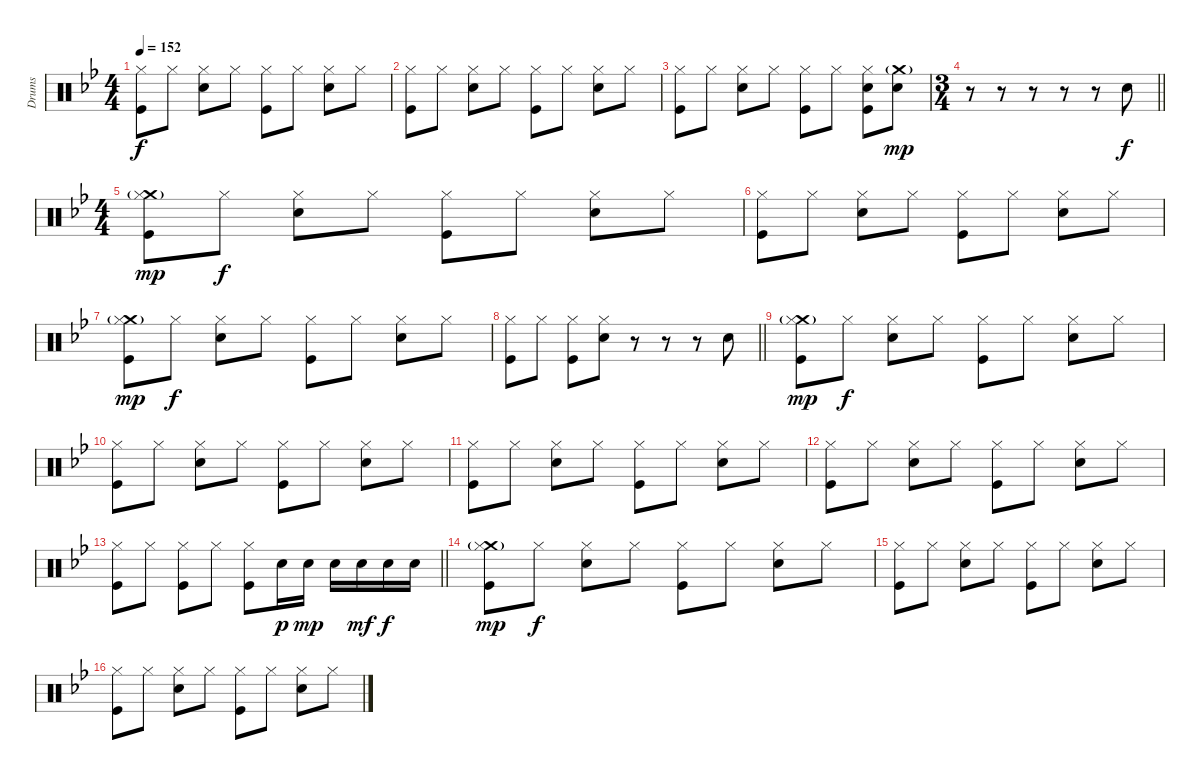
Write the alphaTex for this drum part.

\track ("Drums" "Drums") {instrument percussion}
\staff {score}
\articulation defaults
\ts (4 4)
\tempo 152
\clef neutral
\ks bb
("Hi-Hat (closed)" "Kick (hit)").8{dy f} "Hi-Hat (closed)".8 ("Hi-Hat (closed)" "Electric Snare (hit)").8 "Hi-Hat (closed)".8 ("Hi-Hat (closed)" "Kick (hit)").8 "Hi-Hat (closed)".8 ("Hi-Hat (closed)" "Electric Snare (hit)").8 "Hi-Hat (closed)".8 |
("Hi-Hat (closed)" "Kick (hit)").8 "Hi-Hat (closed)".8 ("Hi-Hat (closed)" "Electric Snare (hit)").8 "Hi-Hat (closed)".8 ("Hi-Hat (closed)" "Kick (hit)").8 "Hi-Hat (closed)".8 ("Hi-Hat (closed)" "Electric Snare (hit)").8 "Hi-Hat (closed)".8 |
("Hi-Hat (closed)" "Kick (hit)").8 "Hi-Hat (closed)".8 ("Hi-Hat (closed)" "Electric Snare (hit)").8 "Hi-Hat (closed)".8 ("Hi-Hat (closed)" "Kick (hit)").8 "Hi-Hat (closed)".8 ("Hi-Hat (closed)" "Kick (hit)" "Electric Snare (hit)").8 ("Crash medium (hit)"{g} "Electric Snare (hit)").8{dy mp} |
\ts (3 4)
\barLineRight lightlight
r.8 r.8 r.8 r.8 r.8 "Electric Snare (hit)".8{dy f} |
\ts (4 4)
("Crash medium (hit)"{g} "Hi-Hat (closed)" "Kick (hit)").8{dy mp} "Hi-Hat (closed)".8{dy f} ("Hi-Hat (closed)" "Electric Snare (hit)").8 "Hi-Hat (closed)".8 ("Hi-Hat (closed)" "Kick (hit)").8 "Hi-Hat (closed)".8 ("Hi-Hat (closed)" "Electric Snare (hit)").8 "Hi-Hat (closed)".8 |
("Hi-Hat (closed)" "Kick (hit)").8 "Hi-Hat (closed)".8 ("Hi-Hat (closed)" "Electric Snare (hit)").8 "Hi-Hat (closed)".8 ("Hi-Hat (closed)" "Kick (hit)").8 "Hi-Hat (closed)".8 ("Hi-Hat (closed)" "Electric Snare (hit)").8 "Hi-Hat (closed)".8 |
("Crash medium (hit)"{g} "Hi-Hat (closed)" "Kick (hit)").8{dy mp} "Hi-Hat (closed)".8{dy f} ("Hi-Hat (closed)" "Electric Snare (hit)").8 "Hi-Hat (closed)".8 ("Hi-Hat (closed)" "Kick (hit)").8 "Hi-Hat (closed)".8 ("Hi-Hat (closed)" "Electric Snare (hit)").8 "Hi-Hat (closed)".8 |
\barLineRight lightlight
("Hi-Hat (closed)" "Kick (hit)").8 "Hi-Hat (closed)".8 ("Hi-Hat (closed)" "Kick (hit)").8 ("Hi-Hat (closed)" "Electric Snare (hit)").8 r.8 r.8 r.8 "Electric Snare (hit)".8 |
("Crash medium (hit)"{g} "Hi-Hat (closed)" "Kick (hit)").8{dy mp} "Hi-Hat (closed)".8{dy f} ("Hi-Hat (closed)" "Electric Snare (hit)").8 "Hi-Hat (closed)".8 ("Hi-Hat (closed)" "Kick (hit)").8 "Hi-Hat (closed)".8 ("Hi-Hat (closed)" "Electric Snare (hit)").8 "Hi-Hat (closed)".8 |
("Hi-Hat (closed)" "Kick (hit)").8 "Hi-Hat (closed)".8 ("Hi-Hat (closed)" "Electric Snare (hit)").8 "Hi-Hat (closed)".8 ("Hi-Hat (closed)" "Kick (hit)").8 "Hi-Hat (closed)".8 ("Hi-Hat (closed)" "Electric Snare (hit)").8 "Hi-Hat (closed)".8 |
("Hi-Hat (closed)" "Kick (hit)").8 "Hi-Hat (closed)".8 ("Hi-Hat (closed)" "Electric Snare (hit)").8 "Hi-Hat (closed)".8 ("Hi-Hat (closed)" "Kick (hit)").8 "Hi-Hat (closed)".8 ("Hi-Hat (closed)" "Electric Snare (hit)").8 "Hi-Hat (closed)".8 |
("Hi-Hat (closed)" "Kick (hit)").8 "Hi-Hat (closed)".8 ("Hi-Hat (closed)" "Electric Snare (hit)").8 "Hi-Hat (closed)".8 ("Hi-Hat (closed)" "Kick (hit)").8 "Hi-Hat (closed)".8 ("Hi-Hat (closed)" "Electric Snare (hit)").8 "Hi-Hat (closed)".8 |
\barLineRight lightlight
("Hi-Hat (closed)" "Kick (hit)").8 "Hi-Hat (closed)".8 ("Hi-Hat (closed)" "Kick (hit)").8 "Hi-Hat (closed)".8 ("Hi-Hat (closed)" "Kick (hit)").8 "Electric Snare (hit)".16{dy p} "Electric Snare (hit)".16{dy mp} "Electric Snare (hit)".16 "Electric Snare (hit)".16{dy mf} "Electric Snare (hit)".16{dy f} "Electric Snare (hit)".16 |
("Crash medium (hit)"{g} "Hi-Hat (closed)" "Kick (hit)").8{dy mp} "Hi-Hat (closed)".8{dy f} ("Hi-Hat (closed)" "Electric Snare (hit)").8 "Hi-Hat (closed)".8 ("Hi-Hat (closed)" "Kick (hit)").8 "Hi-Hat (closed)".8 ("Hi-Hat (closed)" "Electric Snare (hit)").8 "Hi-Hat (closed)".8 |
("Hi-Hat (closed)" "Kick (hit)").8 "Hi-Hat (closed)".8 ("Hi-Hat (closed)" "Electric Snare (hit)").8 "Hi-Hat (closed)".8 ("Hi-Hat (closed)" "Kick (hit)").8 "Hi-Hat (closed)".8 ("Hi-Hat (closed)" "Electric Snare (hit)").8 "Hi-Hat (closed)".8 |
("Hi-Hat (closed)" "Kick (hit)").8 "Hi-Hat (closed)".8 ("Hi-Hat (closed)" "Electric Snare (hit)").8 "Hi-Hat (closed)".8 ("Hi-Hat (closed)" "Kick (hit)").8 "Hi-Hat (closed)".8 ("Hi-Hat (closed)" "Electric Snare (hit)").8 "Hi-Hat (closed)".8
